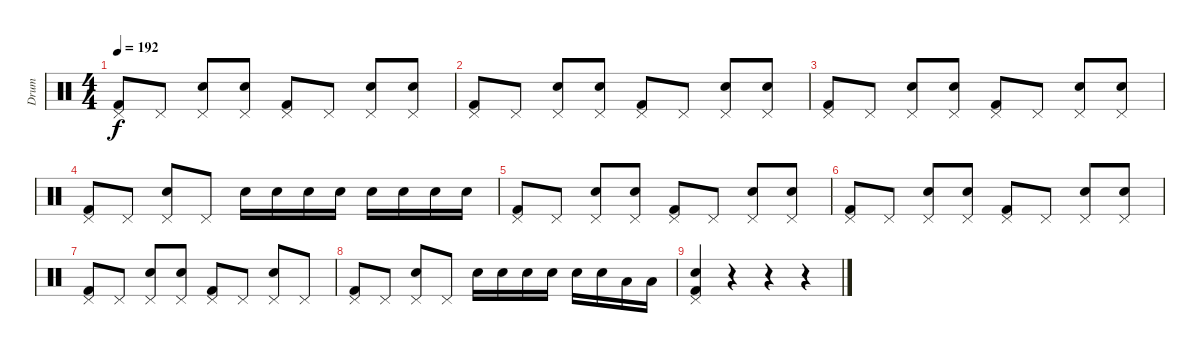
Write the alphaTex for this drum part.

\track ("Drum" "Drum") {instrument percussion}
\staff {score}
\articulation defaults
\ts (4 4)
\tempo 192
\clef neutral
\ks c
("Pedal Hi-Hat (hit)" "Kick (hit) 2").8{dy f} "Pedal Hi-Hat (hit)".8 ("Pedal Hi-Hat (hit)" "Electric Snare (hit)").8 ("Pedal Hi-Hat (hit)" "Electric Snare (hit)").8 ("Pedal Hi-Hat (hit)" "Kick (hit) 2").8 "Pedal Hi-Hat (hit)".8 ("Pedal Hi-Hat (hit)" "Electric Snare (hit)").8 ("Pedal Hi-Hat (hit)" "Electric Snare (hit)").8 |
("Pedal Hi-Hat (hit)" "Kick (hit) 2").8 "Pedal Hi-Hat (hit)".8 ("Pedal Hi-Hat (hit)" "Electric Snare (hit)").8 ("Pedal Hi-Hat (hit)" "Electric Snare (hit)").8 ("Pedal Hi-Hat (hit)" "Kick (hit) 2").8 "Pedal Hi-Hat (hit)".8 ("Pedal Hi-Hat (hit)" "Electric Snare (hit)").8 ("Pedal Hi-Hat (hit)" "Electric Snare (hit)").8 |
("Pedal Hi-Hat (hit)" "Kick (hit) 2").8 "Pedal Hi-Hat (hit)".8 ("Pedal Hi-Hat (hit)" "Electric Snare (hit)").8 ("Pedal Hi-Hat (hit)" "Electric Snare (hit)").8 ("Pedal Hi-Hat (hit)" "Kick (hit) 2").8 "Pedal Hi-Hat (hit)".8 ("Pedal Hi-Hat (hit)" "Electric Snare (hit)").8 ("Pedal Hi-Hat (hit)" "Electric Snare (hit)").8 |
("Pedal Hi-Hat (hit)" "Kick (hit) 2").8 "Pedal Hi-Hat (hit)".8 ("Pedal Hi-Hat (hit)" "Electric Snare (hit)").8 "Pedal Hi-Hat (hit)".8 "Electric Snare (hit)".16 "Electric Snare (hit)".16 "Electric Snare (hit)".16 "Electric Snare (hit)".16 "Electric Snare (hit)".16 "Electric Snare (hit)".16 "Electric Snare (hit)".16 "Electric Snare (hit)".16 |
("Pedal Hi-Hat (hit)" "Kick (hit) 2").8 "Pedal Hi-Hat (hit)".8 ("Pedal Hi-Hat (hit)" "Electric Snare (hit)").8 ("Pedal Hi-Hat (hit)" "Electric Snare (hit)").8 ("Pedal Hi-Hat (hit)" "Kick (hit) 2").8 "Pedal Hi-Hat (hit)".8 ("Pedal Hi-Hat (hit)" "Electric Snare (hit)").8 ("Pedal Hi-Hat (hit)" "Electric Snare (hit)").8 |
("Pedal Hi-Hat (hit)" "Kick (hit) 2").8 "Pedal Hi-Hat (hit)".8 ("Pedal Hi-Hat (hit)" "Electric Snare (hit)").8 ("Pedal Hi-Hat (hit)" "Electric Snare (hit)").8 ("Pedal Hi-Hat (hit)" "Kick (hit) 2").8 "Pedal Hi-Hat (hit)".8 ("Pedal Hi-Hat (hit)" "Electric Snare (hit)").8 ("Pedal Hi-Hat (hit)" "Electric Snare (hit)").8 |
("Pedal Hi-Hat (hit)" "Kick (hit) 2").8 "Pedal Hi-Hat (hit)".8 ("Pedal Hi-Hat (hit)" "Electric Snare (hit)").8 ("Pedal Hi-Hat (hit)" "Electric Snare (hit)").8 ("Pedal Hi-Hat (hit)" "Kick (hit) 2").8 "Pedal Hi-Hat (hit)".8 ("Pedal Hi-Hat (hit)" "Electric Snare (hit)").8 "Pedal Hi-Hat (hit)".8 |
("Pedal Hi-Hat (hit)" "Kick (hit) 2").8 "Pedal Hi-Hat (hit)".8 ("Pedal Hi-Hat (hit)" "Electric Snare (hit)").8 "Pedal Hi-Hat (hit)".8 "Electric Snare (hit)".16 "Electric Snare (hit)".16 "Electric Snare (hit)".16 "Electric Snare (hit)".16 "Electric Snare (hit)".16 "Electric Snare (hit)".16 "Low Tom (hit)".16 "Low Tom (hit)".16 |
("Pedal Hi-Hat (hit)" "Electric Snare (hit)" "Kick (hit) 2").4 r.4 r.4 r.4
